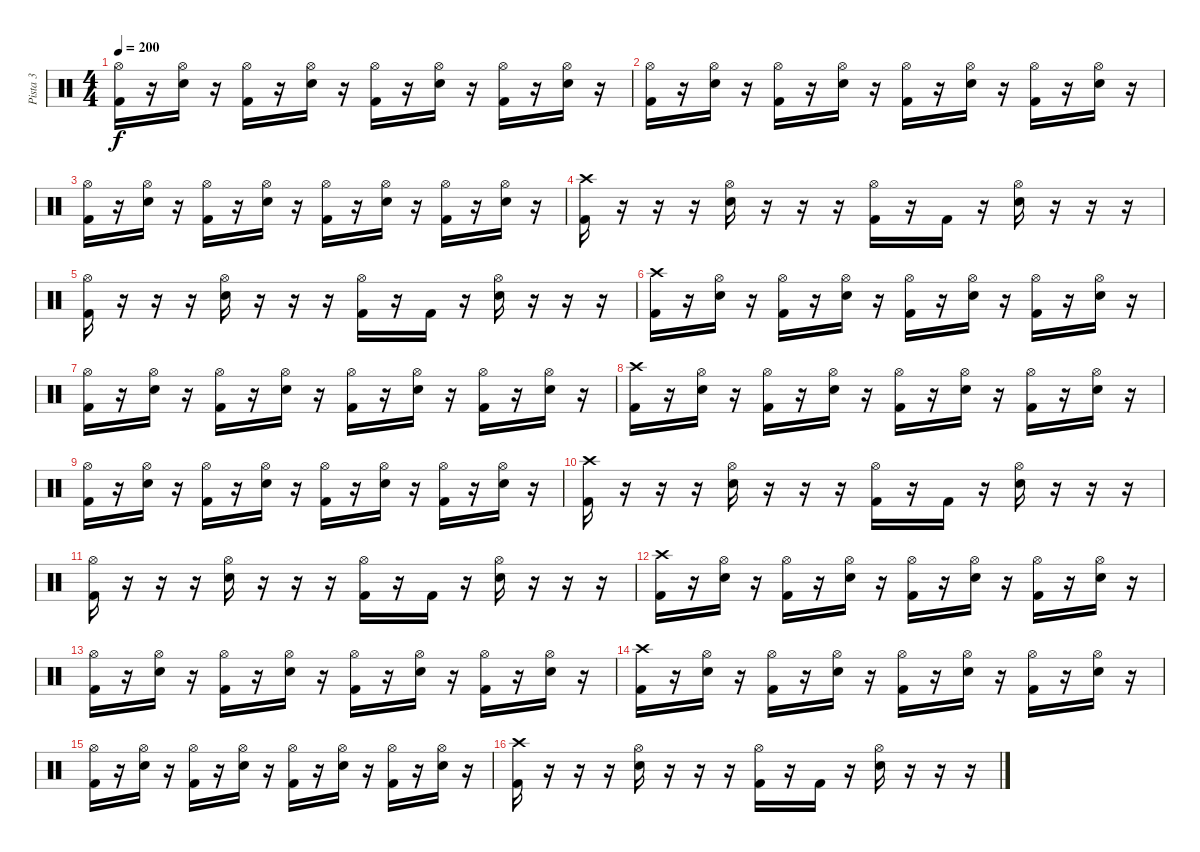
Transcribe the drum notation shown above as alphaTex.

\track ("Pista 3" "Pista 3") {instrument percussion}
\staff {score}
\articulation defaults
\ts (4 4)
\tempo 200
\clef neutral
\ks c
("Hi-Hat (open)" "Kick (hit) 2").16{dy f} r.16 ("Hi-Hat (open)" "Electric Snare (hit)").16 r.16 ("Hi-Hat (open)" "Kick (hit) 2").16 r.16 ("Hi-Hat (open)" "Electric Snare (hit)").16 r.16 ("Hi-Hat (open)" "Kick (hit) 2").16 r.16 ("Hi-Hat (open)" "Electric Snare (hit)").16 r.16 ("Hi-Hat (open)" "Kick (hit) 2").16 r.16 ("Hi-Hat (open)" "Electric Snare (hit)").16 r.16 |
("Hi-Hat (open)" "Kick (hit) 2").16 r.16 ("Hi-Hat (open)" "Electric Snare (hit)").16 r.16 ("Hi-Hat (open)" "Kick (hit) 2").16 r.16 ("Hi-Hat (open)" "Electric Snare (hit)").16 r.16 ("Hi-Hat (open)" "Kick (hit) 2").16 r.16 ("Hi-Hat (open)" "Electric Snare (hit)").16 r.16 ("Hi-Hat (open)" "Kick (hit) 2").16 r.16 ("Hi-Hat (open)" "Electric Snare (hit)").16 r.16 |
("Hi-Hat (open)" "Kick (hit) 2").16 r.16 ("Hi-Hat (open)" "Electric Snare (hit)").16 r.16 ("Hi-Hat (open)" "Kick (hit) 2").16 r.16 ("Hi-Hat (open)" "Electric Snare (hit)").16 r.16 ("Hi-Hat (open)" "Kick (hit) 2").16 r.16 ("Hi-Hat (open)" "Electric Snare (hit)").16 r.16 ("Hi-Hat (open)" "Kick (hit) 2").16 r.16 ("Hi-Hat (open)" "Electric Snare (hit)").16 r.16 |
("Crash high (hit)" "Kick (hit) 2").16 r.16 r.16 r.16 ("Hi-Hat (open)" "Electric Snare (hit)").16 r.16 r.16 r.16 ("Hi-Hat (open)" "Kick (hit) 2").16 r.16 "Kick (hit) 2".16 r.16 ("Hi-Hat (open)" "Electric Snare (hit)").16 r.16 r.16 r.16 |
("Hi-Hat (open)" "Kick (hit) 2").16 r.16 r.16 r.16 ("Hi-Hat (open)" "Electric Snare (hit)").16 r.16 r.16 r.16 ("Hi-Hat (open)" "Kick (hit) 2").16 r.16 "Kick (hit) 2".16 r.16 ("Hi-Hat (open)" "Electric Snare (hit)").16 r.16 r.16 r.16 |
("Crash high (hit)" "Kick (hit) 2").16 r.16 ("Hi-Hat (open)" "Electric Snare (hit)").16 r.16 ("Hi-Hat (open)" "Kick (hit) 2").16 r.16 ("Hi-Hat (open)" "Electric Snare (hit)").16 r.16 ("Hi-Hat (open)" "Kick (hit) 2").16 r.16 ("Hi-Hat (open)" "Electric Snare (hit)").16 r.16 ("Hi-Hat (open)" "Kick (hit) 2").16 r.16 ("Hi-Hat (open)" "Electric Snare (hit)").16 r.16 |
("Hi-Hat (open)" "Kick (hit) 2").16 r.16 ("Hi-Hat (open)" "Electric Snare (hit)").16 r.16 ("Hi-Hat (open)" "Kick (hit) 2").16 r.16 ("Hi-Hat (open)" "Electric Snare (hit)").16 r.16 ("Hi-Hat (open)" "Kick (hit) 2").16 r.16 ("Hi-Hat (open)" "Electric Snare (hit)").16 r.16 ("Hi-Hat (open)" "Kick (hit) 2").16 r.16 ("Hi-Hat (open)" "Electric Snare (hit)").16 r.16 |
("Crash high (hit)" "Kick (hit) 2").16 r.16 ("Hi-Hat (open)" "Electric Snare (hit)").16 r.16 ("Hi-Hat (open)" "Kick (hit) 2").16 r.16 ("Hi-Hat (open)" "Electric Snare (hit)").16 r.16 ("Hi-Hat (open)" "Kick (hit) 2").16 r.16 ("Hi-Hat (open)" "Electric Snare (hit)").16 r.16 ("Hi-Hat (open)" "Kick (hit) 2").16 r.16 ("Hi-Hat (open)" "Electric Snare (hit)").16 r.16 |
("Hi-Hat (open)" "Kick (hit) 2").16 r.16 ("Hi-Hat (open)" "Electric Snare (hit)").16 r.16 ("Hi-Hat (open)" "Kick (hit) 2").16 r.16 ("Hi-Hat (open)" "Electric Snare (hit)").16 r.16 ("Hi-Hat (open)" "Kick (hit) 2").16 r.16 ("Hi-Hat (open)" "Electric Snare (hit)").16 r.16 ("Hi-Hat (open)" "Kick (hit) 2").16 r.16 ("Hi-Hat (open)" "Electric Snare (hit)").16 r.16 |
("Crash high (hit)" "Kick (hit) 2").16 r.16 r.16 r.16 ("Hi-Hat (open)" "Electric Snare (hit)").16 r.16 r.16 r.16 ("Hi-Hat (open)" "Kick (hit) 2").16 r.16 "Kick (hit) 2".16 r.16 ("Hi-Hat (open)" "Electric Snare (hit)").16 r.16 r.16 r.16 |
("Hi-Hat (open)" "Kick (hit) 2").16 r.16 r.16 r.16 ("Hi-Hat (open)" "Electric Snare (hit)").16 r.16 r.16 r.16 ("Hi-Hat (open)" "Kick (hit) 2").16 r.16 "Kick (hit) 2".16 r.16 ("Hi-Hat (open)" "Electric Snare (hit)").16 r.16 r.16 r.16 |
("Crash high (hit)" "Kick (hit) 2").16 r.16 ("Hi-Hat (open)" "Electric Snare (hit)").16 r.16 ("Hi-Hat (open)" "Kick (hit) 2").16 r.16 ("Hi-Hat (open)" "Electric Snare (hit)").16 r.16 ("Hi-Hat (open)" "Kick (hit) 2").16 r.16 ("Hi-Hat (open)" "Electric Snare (hit)").16 r.16 ("Hi-Hat (open)" "Kick (hit) 2").16 r.16 ("Hi-Hat (open)" "Electric Snare (hit)").16 r.16 |
("Hi-Hat (open)" "Kick (hit) 2").16 r.16 ("Hi-Hat (open)" "Electric Snare (hit)").16 r.16 ("Hi-Hat (open)" "Kick (hit) 2").16 r.16 ("Hi-Hat (open)" "Electric Snare (hit)").16 r.16 ("Hi-Hat (open)" "Kick (hit) 2").16 r.16 ("Hi-Hat (open)" "Electric Snare (hit)").16 r.16 ("Hi-Hat (open)" "Kick (hit) 2").16 r.16 ("Hi-Hat (open)" "Electric Snare (hit)").16 r.16 |
("Crash high (hit)" "Kick (hit) 2").16 r.16 ("Hi-Hat (open)" "Electric Snare (hit)").16 r.16 ("Hi-Hat (open)" "Kick (hit) 2").16 r.16 ("Hi-Hat (open)" "Electric Snare (hit)").16 r.16 ("Hi-Hat (open)" "Kick (hit) 2").16 r.16 ("Hi-Hat (open)" "Electric Snare (hit)").16 r.16 ("Hi-Hat (open)" "Kick (hit) 2").16 r.16 ("Hi-Hat (open)" "Electric Snare (hit)").16 r.16 |
("Hi-Hat (open)" "Kick (hit) 2").16 r.16 ("Hi-Hat (open)" "Electric Snare (hit)").16 r.16 ("Hi-Hat (open)" "Kick (hit) 2").16 r.16 ("Hi-Hat (open)" "Electric Snare (hit)").16 r.16 ("Hi-Hat (open)" "Kick (hit) 2").16 r.16 ("Hi-Hat (open)" "Electric Snare (hit)").16 r.16 ("Hi-Hat (open)" "Kick (hit) 2").16 r.16 ("Hi-Hat (open)" "Electric Snare (hit)").16 r.16 |
("Crash high (hit)" "Kick (hit) 2").16 r.16 r.16 r.16 ("Hi-Hat (open)" "Electric Snare (hit)").16 r.16 r.16 r.16 ("Hi-Hat (open)" "Kick (hit) 2").16 r.16 "Kick (hit) 2".16 r.16 ("Hi-Hat (open)" "Electric Snare (hit)").16 r.16 r.16 r.16
